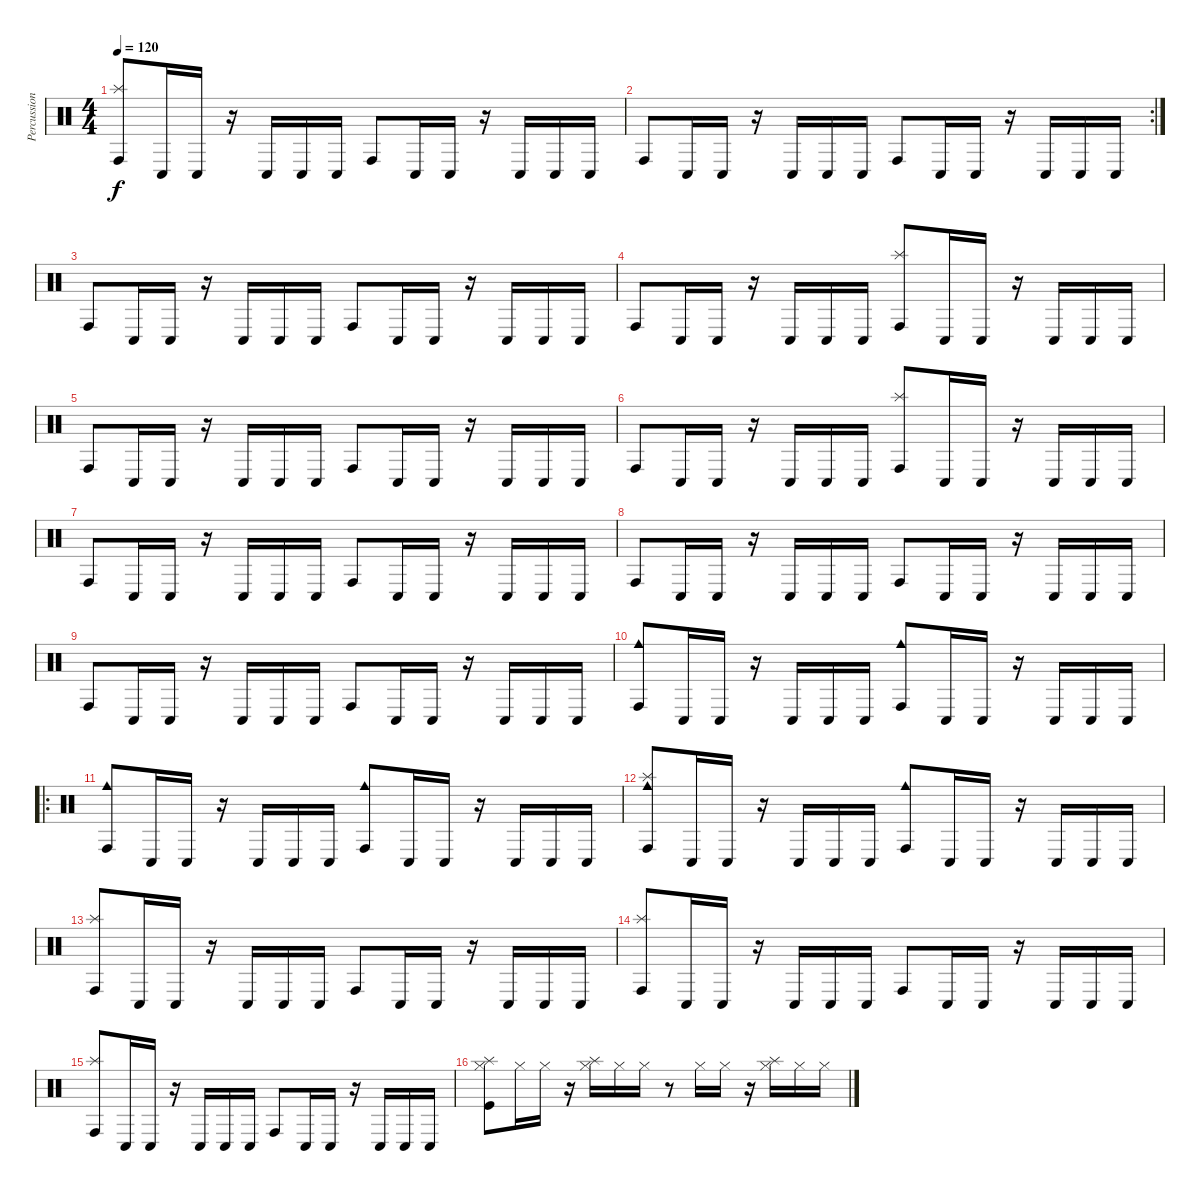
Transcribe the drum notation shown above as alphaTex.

\track ("Percussion" "Percussion") {instrument percussion}
\staff {score}
\articulation defaults
\ts (4 4)
\tempo 120
\clef neutral
\ks c
("Splash (hit)" "Conga high (hit)").8{dy f} "Conga low (hit)".16 "Conga low (hit)".16 r.16 "Conga low (hit)".16 "Conga low (hit)".16 "Conga low (hit)".16 "Conga high (hit)".8 "Conga low (hit)".16 "Conga low (hit)".16 r.16 "Conga low (hit)".16 "Conga low (hit)".16 "Conga low (hit)".16 |
\rc 2 "Conga high (hit)".8 "Conga low (hit)".16 "Conga low (hit)".16
r.16 "Conga low (hit)".16 "Conga low (hit)".16 "Conga low (hit)".16 "Conga high (hit)".8 "Conga low (hit)".16 "Conga low (hit)".16 r.16 "Conga low (hit)".16 "Conga low (hit)".16 "Conga low (hit)".16 |
"Conga high (hit)".8 "Conga low (hit)".16 "Conga low (hit)".16 r.16 "Conga low (hit)".16 "Conga low (hit)".16 "Conga low (hit)".16 "Conga high (hit)".8 "Conga low (hit)".16 "Conga low (hit)".16 r.16 "Conga low (hit)".16 "Conga low (hit)".16 "Conga low (hit)".16 |
"Conga high (hit)".8 "Conga low (hit)".16 "Conga low (hit)".16 r.16 "Conga low (hit)".16 "Conga low (hit)".16 "Conga low (hit)".16 ("Splash (hit)" "Conga high (hit)").8 "Conga low (hit)".16 "Conga low (hit)".16 r.16 "Conga low (hit)".16 "Conga low (hit)".16 "Conga low (hit)".16 |
"Conga high (hit)".8 "Conga low (hit)".16 "Conga low (hit)".16 r.16 "Conga low (hit)".16 "Conga low (hit)".16 "Conga low (hit)".16 "Conga high (hit)".8 "Conga low (hit)".16 "Conga low (hit)".16 r.16 "Conga low (hit)".16 "Conga low (hit)".16 "Conga low (hit)".16 |
"Conga high (hit)".8 "Conga low (hit)".16 "Conga low (hit)".16 r.16 "Conga low (hit)".16 "Conga low (hit)".16 "Conga low (hit)".16 ("Splash (hit)" "Conga high (hit)").8 "Conga low (hit)".16 "Conga low (hit)".16 r.16 "Conga low (hit)".16 "Conga low (hit)".16 "Conga low (hit)".16 |
"Conga high (hit)".8 "Conga low (hit)".16 "Conga low (hit)".16 r.16 "Conga low (hit)".16 "Conga low (hit)".16 "Conga low (hit)".16 "Conga high (hit)".8 "Conga low (hit)".16 "Conga low (hit)".16 r.16 "Conga low (hit)".16 "Conga low (hit)".16 "Conga low (hit)".16 |
"Conga high (hit)".8 "Conga low (hit)".16 "Conga low (hit)".16 r.16 "Conga low (hit)".16 "Conga low (hit)".16 "Conga low (hit)".16 "Conga high (hit)".8 "Conga low (hit)".16 "Conga low (hit)".16 r.16 "Conga low (hit)".16 "Conga low (hit)".16 "Conga low (hit)".16 |
"Conga high (hit)".8 "Conga low (hit)".16 "Conga low (hit)".16 r.16 "Conga low (hit)".16 "Conga low (hit)".16 "Conga low (hit)".16 "Conga high (hit)".8 "Conga low (hit)".16 "Conga low (hit)".16 r.16 "Conga low (hit)".16 "Conga low (hit)".16 "Conga low (hit)".16 |
("Cowbell medium (hit)" "Conga high (hit)").8 "Conga low (hit)".16 "Conga low (hit)".16 r.16 "Conga low (hit)".16 "Conga low (hit)".16 "Conga low (hit)".16 ("Cowbell medium (hit)" "Conga high (hit)").8 "Conga low (hit)".16 "Conga low (hit)".16 r.16 "Conga low (hit)".16 "Conga low (hit)".16 "Conga low (hit)".16 |
\ro
("Cowbell medium (hit)" "Conga high (hit)").8 "Conga low (hit)".16 "Conga low (hit)".16 r.16 "Conga low (hit)".16 "Conga low (hit)".16 "Conga low (hit)".16 ("Cowbell medium (hit)" "Conga high (hit)").8 "Conga low (hit)".16 "Conga low (hit)".16 r.16 "Conga low (hit)".16 "Conga low (hit)".16 "Conga low (hit)".16 |
("Splash (hit)" "Cowbell medium (hit)" "Conga high (hit)").8 "Conga low (hit)".16 "Conga low (hit)".16 r.16 "Conga low (hit)".16 "Conga low (hit)".16 "Conga low (hit)".16 ("Cowbell medium (hit)" "Conga high (hit)").8 "Conga low (hit)".16 "Conga low (hit)".16 r.16 "Conga low (hit)".16 "Conga low (hit)".16 "Conga low (hit)".16 |
("Splash (hit)" "Conga high (hit)").8 "Conga low (hit)".16 "Conga low (hit)".16 r.16 "Conga low (hit)".16 "Conga low (hit)".16 "Conga low (hit)".16 "Conga high (hit)".8 "Conga low (hit)".16 "Conga low (hit)".16 r.16 "Conga low (hit)".16 "Conga low (hit)".16 "Conga low (hit)".16 |
("Splash (hit)" "Conga high (hit)").8 "Conga low (hit)".16 "Conga low (hit)".16 r.16 "Conga low (hit)".16 "Conga low (hit)".16 "Conga low (hit)".16 "Conga high (hit)".8 "Conga low (hit)".16 "Conga low (hit)".16 r.16 "Conga low (hit)".16 "Conga low (hit)".16 "Conga low (hit)".16 |
("Splash (hit)" "Conga high (hit)").8 "Conga low (hit)".16 "Conga low (hit)".16 r.16 "Conga low (hit)".16 "Conga low (hit)".16 "Conga low (hit)".16 "Conga high (hit)".8 "Conga low (hit)".16 "Conga low (hit)".16 r.16 "Conga low (hit)".16 "Conga low (hit)".16 "Conga low (hit)".16 |
("Splash (hit)" "Hi-Hat (closed)" "Kick (hit)").8 "Hi-Hat (closed)".16 "Hi-Hat (closed)".16 r.16 ("Splash (hit)" "Hi-Hat (closed)").16 "Hi-Hat (closed)".16 "Hi-Hat (closed)".16 r.8 "Hi-Hat (closed)".16 "Hi-Hat (closed)".16 r.16 ("Splash (hit)" "Hi-Hat (closed)").16 "Hi-Hat (closed)".16 "Hi-Hat (closed)".16
